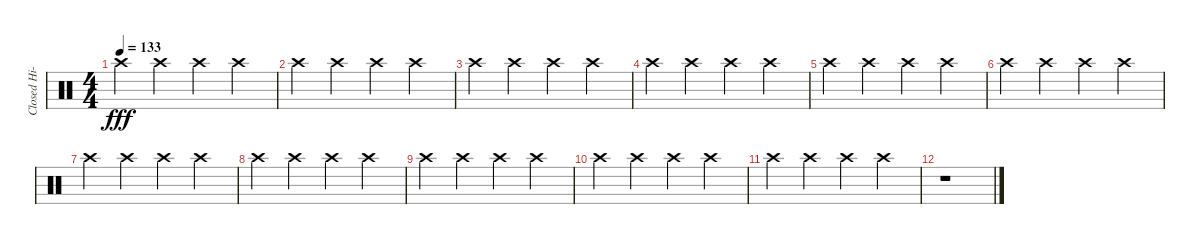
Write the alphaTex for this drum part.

\track ("Closed Hi-hat/Synth" "Closed Hi-") {instrument percussion}
\staff {score}
\articulation defaults
\ts (4 4)
\tempo 133
\clef neutral
\ks c "Crash high (hit)".4{dy fff} "Crash high (hit)".4 "Crash high (hit)".4 "Crash high (hit)".4
|
"Crash high (hit)".4 "Crash high (hit)".4 "Crash high (hit)".4 "Crash high (hit)".4 |
"Crash high (hit)".4 "Crash high (hit)".4 "Crash high (hit)".4 "Crash high (hit)".4 |
"Crash high (hit)".4 "Crash high (hit)".4 "Crash high (hit)".4 "Crash high (hit)".4 |
"Crash high (hit)".4 "Crash high (hit)".4 "Crash high (hit)".4 "Crash high (hit)".4 |
"Crash high (hit)".4 "Crash high (hit)".4 "Crash high (hit)".4 "Crash high (hit)".4 |
"Crash high (hit)".4 "Crash high (hit)".4 "Crash high (hit)".4 "Crash high (hit)".4 |
"Crash high (hit)".4 "Crash high (hit)".4 "Crash high (hit)".4 "Crash high (hit)".4 |
"Crash high (hit)".4 "Crash high (hit)".4 "Crash high (hit)".4 "Crash high (hit)".4 |
"Crash high (hit)".4 "Crash high (hit)".4 "Crash high (hit)".4 "Crash high (hit)".4 |
"Crash high (hit)".4 "Crash high (hit)".4 "Crash high (hit)".4 "Crash high (hit)".4 |
r.1
